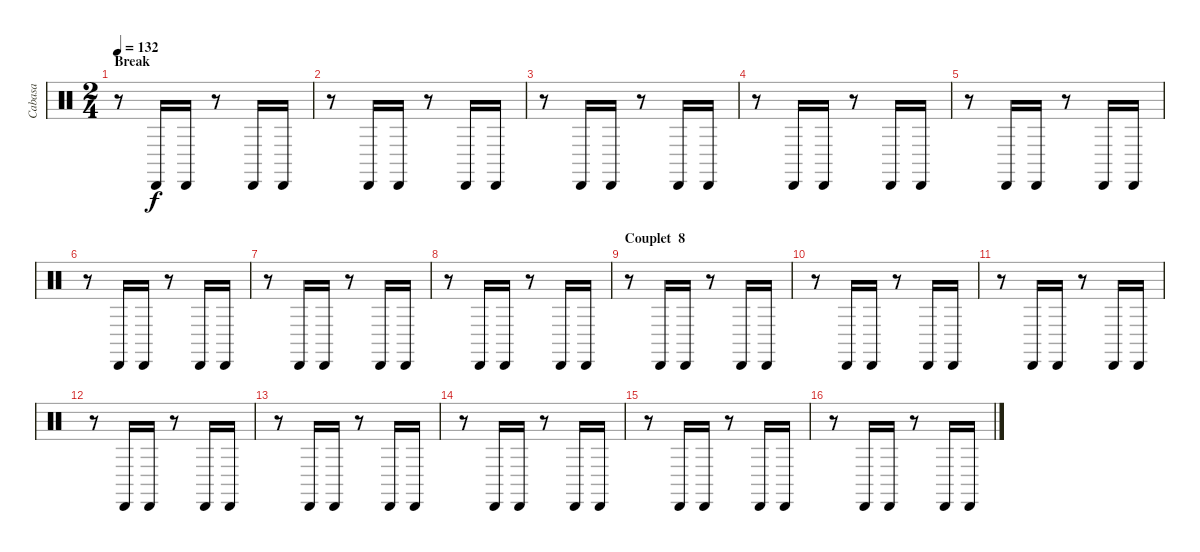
\track ("Cabasa" "Cabasa") {instrument percussion}
\staff {score}
\articulation defaults
\ts (2 4)
\section ("" "Break")
\tempo 132
\clef neutral
\ks c
r.8{dy f} "Cabasa (hit)".16 "Cabasa (hit)".16 r.8 "Cabasa (hit)".16 "Cabasa (hit)".16 |
r.8 "Cabasa (hit)".16 "Cabasa (hit)".16 r.8 "Cabasa (hit)".16 "Cabasa (hit)".16 |
r.8 "Cabasa (hit)".16 "Cabasa (hit)".16 r.8 "Cabasa (hit)".16 "Cabasa (hit)".16 |
r.8 "Cabasa (hit)".16 "Cabasa (hit)".16 r.8 "Cabasa (hit)".16 "Cabasa (hit)".16 |
r.8 "Cabasa (hit)".16 "Cabasa (hit)".16 r.8 "Cabasa (hit)".16 "Cabasa (hit)".16 |
r.8 "Cabasa (hit)".16 "Cabasa (hit)".16 r.8 "Cabasa (hit)".16 "Cabasa (hit)".16 |
r.8 "Cabasa (hit)".16 "Cabasa (hit)".16 r.8 "Cabasa (hit)".16 "Cabasa (hit)".16 |
r.8 "Cabasa (hit)".16 "Cabasa (hit)".16 r.8 "Cabasa (hit)".16 "Cabasa (hit)".16 |
\section ("" "Couplet  8")
r.8 "Cabasa (hit)".16 "Cabasa (hit)".16 r.8 "Cabasa (hit)".16 "Cabasa (hit)".16 |
r.8 "Cabasa (hit)".16 "Cabasa (hit)".16 r.8 "Cabasa (hit)".16 "Cabasa (hit)".16 |
r.8 "Cabasa (hit)".16 "Cabasa (hit)".16 r.8 "Cabasa (hit)".16 "Cabasa (hit)".16 |
r.8 "Cabasa (hit)".16 "Cabasa (hit)".16 r.8 "Cabasa (hit)".16 "Cabasa (hit)".16 |
r.8 "Cabasa (hit)".16 "Cabasa (hit)".16 r.8 "Cabasa (hit)".16 "Cabasa (hit)".16 |
r.8 "Cabasa (hit)".16 "Cabasa (hit)".16 r.8 "Cabasa (hit)".16 "Cabasa (hit)".16 |
r.8 "Cabasa (hit)".16 "Cabasa (hit)".16 r.8 "Cabasa (hit)".16 "Cabasa (hit)".16 |
r.8 "Cabasa (hit)".16 "Cabasa (hit)".16 r.8 "Cabasa (hit)".16 "Cabasa (hit)".16
